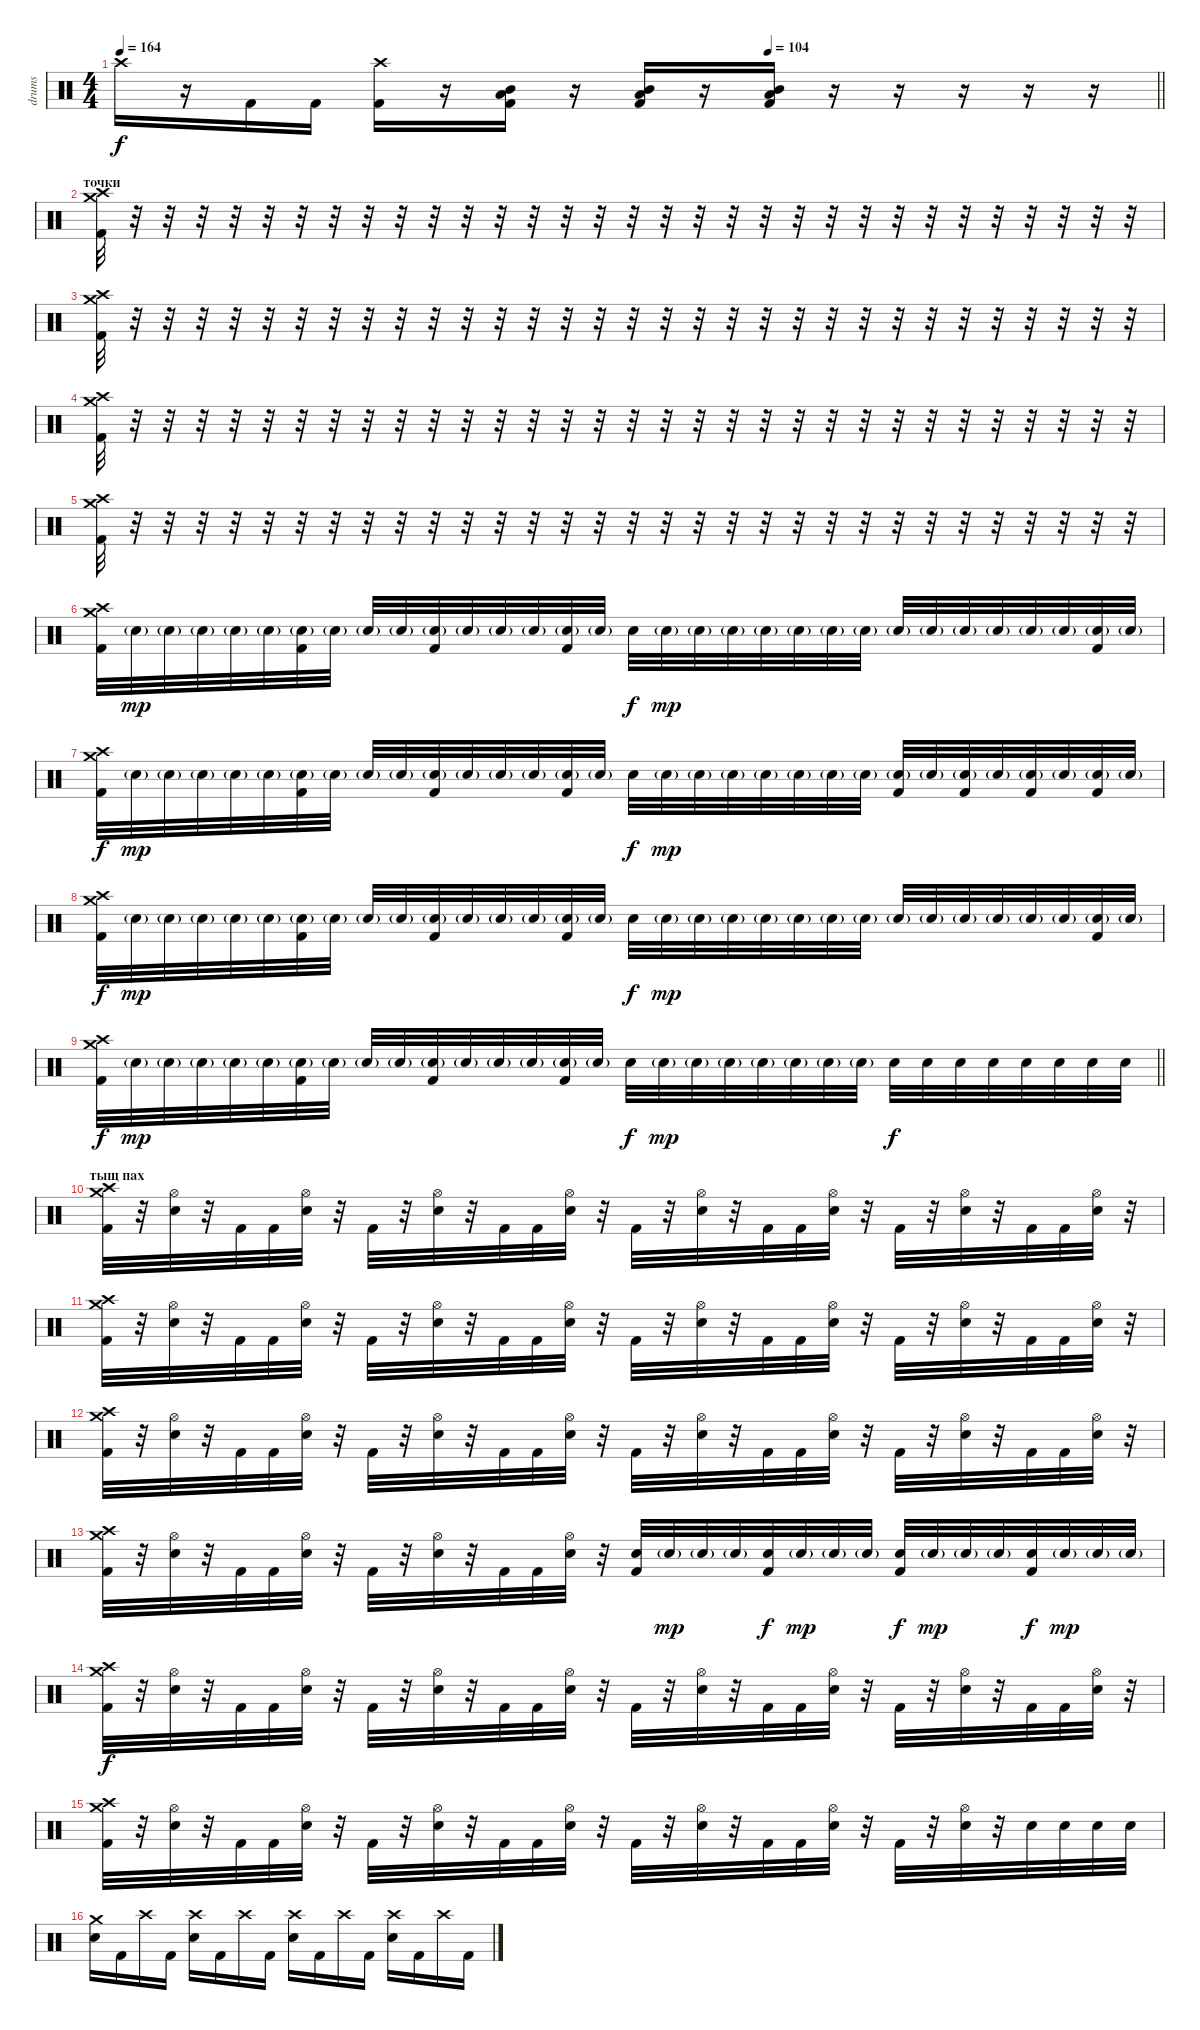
\track ("drums" "drums") {instrument percussion}
\staff {score}
\articulation defaults
\ts (4 4)
\tempo 164
\tempo (104 0.625)
\clef neutral
\barLineRight lightlight
\ks c "Crash high (hit)".16{dy f}
r.16 "Kick (hit) 2".16 "Kick (hit) 2".16 ("Crash high (hit)" "Kick (hit) 2").16 r.16 ("Low Floor Tom (hit)" "Mid Tom (hit)" "Kick (hit) 2").16 r.16 ("Low Floor Tom (hit)" "Mid Tom (hit)" "Kick (hit) 2").16 r.16 ("Low Floor Tom (hit)" "Mid Tom (hit)" "Kick (hit) 2").16 r.16 r.16 r.16 r.16 r.16 |
\section ("" "точки")
("Crash medium (hit)" "Crash high (hit)" "Kick (hit) 2").32 r.32 r.32 r.32 r.32 r.32 r.32 r.32 r.32 r.32 r.32 r.32 r.32 r.32 r.32 r.32 r.32 r.32 r.32 r.32 r.32 r.32 r.32 r.32 r.32 r.32 r.32 r.32 r.32 r.32 r.32 r.32 |
("Crash medium (hit)" "Crash high (hit)" "Kick (hit) 2").32 r.32 r.32 r.32 r.32 r.32 r.32 r.32 r.32 r.32 r.32 r.32 r.32 r.32 r.32 r.32 r.32 r.32 r.32 r.32 r.32 r.32 r.32 r.32 r.32 r.32 r.32 r.32 r.32 r.32 r.32 r.32 |
("Crash medium (hit)" "Crash high (hit)" "Kick (hit) 2").32 r.32 r.32 r.32 r.32 r.32 r.32 r.32 r.32 r.32 r.32 r.32 r.32 r.32 r.32 r.32 r.32 r.32 r.32 r.32 r.32 r.32 r.32 r.32 r.32 r.32 r.32 r.32 r.32 r.32 r.32 r.32 |
("Crash medium (hit)" "Crash high (hit)" "Kick (hit) 2").32 r.32 r.32 r.32 r.32 r.32 r.32 r.32 r.32 r.32 r.32 r.32 r.32 r.32 r.32 r.32 r.32 r.32 r.32 r.32 r.32 r.32 r.32 r.32 r.32 r.32 r.32 r.32 r.32 r.32 r.32 r.32 |
("Crash medium (hit)" "Crash high (hit)" "Kick (hit) 2").32 "Electric Snare (hit)"{g}.32{dy mp} "Electric Snare (hit)"{g}.32 "Electric Snare (hit)"{g}.32 "Electric Snare (hit)"{g}.32 "Electric Snare (hit)"{g}.32 ("Electric Snare (hit)"{g} "Kick (hit) 2").32 "Electric Snare (hit)"{g}.32 "Electric Snare (hit)"{g}.32 "Electric Snare (hit)"{g}.32 ("Electric Snare (hit)"{g} "Kick (hit) 2").32 "Electric Snare (hit)"{g}.32 "Electric Snare (hit)"{g}.32 "Electric Snare (hit)"{g}.32 ("Electric Snare (hit)"{g} "Kick (hit) 2").32 "Electric Snare (hit)"{g}.32 "Electric Snare (hit)".32{dy f} "Electric Snare (hit)"{g}.32{dy mp} "Electric Snare (hit)"{g}.32 "Electric Snare (hit)"{g}.32 "Electric Snare (hit)"{g}.32 "Electric Snare (hit)"{g}.32 "Electric Snare (hit)"{g}.32 "Electric Snare (hit)"{g}.32 "Electric Snare (hit)"{g}.32 "Electric Snare (hit)"{g}.32 "Electric Snare (hit)"{g}.32 "Electric Snare (hit)"{g}.32 "Electric Snare (hit)"{g}.32 "Electric Snare (hit)"{g}.32 ("Electric Snare (hit)"{g} "Kick (hit) 2").32 "Electric Snare (hit)"{g}.32 |
("Crash medium (hit)" "Crash high (hit)" "Kick (hit) 2").32{dy f} "Electric Snare (hit)"{g}.32{dy mp} "Electric Snare (hit)"{g}.32 "Electric Snare (hit)"{g}.32 "Electric Snare (hit)"{g}.32 "Electric Snare (hit)"{g}.32 ("Electric Snare (hit)"{g} "Kick (hit) 2").32 "Electric Snare (hit)"{g}.32 "Electric Snare (hit)"{g}.32 "Electric Snare (hit)"{g}.32 ("Electric Snare (hit)"{g} "Kick (hit) 2").32 "Electric Snare (hit)"{g}.32 "Electric Snare (hit)"{g}.32 "Electric Snare (hit)"{g}.32 ("Electric Snare (hit)"{g} "Kick (hit) 2").32 "Electric Snare (hit)"{g}.32 "Electric Snare (hit)".32{dy f} "Electric Snare (hit)"{g}.32{dy mp} "Electric Snare (hit)"{g}.32 "Electric Snare (hit)"{g}.32 "Electric Snare (hit)"{g}.32 "Electric Snare (hit)"{g}.32 "Electric Snare (hit)"{g}.32 "Electric Snare (hit)"{g}.32 ("Electric Snare (hit)"{g} "Kick (hit) 2").32 "Electric Snare (hit)"{g}.32 ("Electric Snare (hit)"{g} "Kick (hit) 2").32 "Electric Snare (hit)"{g}.32 ("Electric Snare (hit)"{g} "Kick (hit) 2").32 "Electric Snare (hit)"{g}.32 ("Electric Snare (hit)"{g} "Kick (hit) 2").32 "Electric Snare (hit)"{g}.32 |
("Crash medium (hit)" "Crash high (hit)" "Kick (hit) 2").32{dy f} "Electric Snare (hit)"{g}.32{dy mp} "Electric Snare (hit)"{g}.32 "Electric Snare (hit)"{g}.32 "Electric Snare (hit)"{g}.32 "Electric Snare (hit)"{g}.32 ("Electric Snare (hit)"{g} "Kick (hit) 2").32 "Electric Snare (hit)"{g}.32 "Electric Snare (hit)"{g}.32 "Electric Snare (hit)"{g}.32 ("Electric Snare (hit)"{g} "Kick (hit) 2").32 "Electric Snare (hit)"{g}.32 "Electric Snare (hit)"{g}.32 "Electric Snare (hit)"{g}.32 ("Electric Snare (hit)"{g} "Kick (hit) 2").32 "Electric Snare (hit)"{g}.32 "Electric Snare (hit)".32{dy f} "Electric Snare (hit)"{g}.32{dy mp} "Electric Snare (hit)"{g}.32 "Electric Snare (hit)"{g}.32 "Electric Snare (hit)"{g}.32 "Electric Snare (hit)"{g}.32 "Electric Snare (hit)"{g}.32 "Electric Snare (hit)"{g}.32 "Electric Snare (hit)"{g}.32 "Electric Snare (hit)"{g}.32 "Electric Snare (hit)"{g}.32 "Electric Snare (hit)"{g}.32 "Electric Snare (hit)"{g}.32 "Electric Snare (hit)"{g}.32 ("Electric Snare (hit)"{g} "Kick (hit) 2").32 "Electric Snare (hit)"{g}.32 |
\barLineRight lightlight
("Crash medium (hit)" "Crash high (hit)" "Kick (hit) 2").32{dy f} "Electric Snare (hit)"{g}.32{dy mp} "Electric Snare (hit)"{g}.32 "Electric Snare (hit)"{g}.32 "Electric Snare (hit)"{g}.32 "Electric Snare (hit)"{g}.32 ("Electric Snare (hit)"{g} "Kick (hit) 2").32 "Electric Snare (hit)"{g}.32 "Electric Snare (hit)"{g}.32 "Electric Snare (hit)"{g}.32 ("Electric Snare (hit)"{g} "Kick (hit) 2").32 "Electric Snare (hit)"{g}.32 "Electric Snare (hit)"{g}.32 "Electric Snare (hit)"{g}.32 ("Electric Snare (hit)"{g} "Kick (hit) 2").32 "Electric Snare (hit)"{g}.32 "Electric Snare (hit)".32{dy f} "Electric Snare (hit)"{g}.32{dy mp} "Electric Snare (hit)"{g}.32 "Electric Snare (hit)"{g}.32 "Electric Snare (hit)"{g}.32 "Electric Snare (hit)"{g}.32 "Electric Snare (hit)"{g}.32 "Electric Snare (hit)"{g}.32 "Electric Snare (hit)".32{dy f} "Electric Snare (hit)".32 "Electric Snare (hit)".32 "Electric Snare (hit)".32 "Electric Snare (hit)".32 "Electric Snare (hit)".32 "Electric Snare (hit)".32 "Electric Snare (hit)".32 |
\section ("" "тыщ пах")
("Crash medium (hit)" "Crash high (hit)" "Kick (hit) 2").32 r.32 ("Hi-Hat (open)" "Electric Snare (hit)").32 r.32 "Kick (hit) 2".32 "Kick (hit) 2".32 ("Hi-Hat (open)" "Electric Snare (hit)").32 r.32 "Kick (hit) 2".32 r.32 ("Hi-Hat (open)" "Electric Snare (hit)").32 r.32 "Kick (hit) 2".32 "Kick (hit) 2".32 ("Hi-Hat (open)" "Electric Snare (hit)").32 r.32 "Kick (hit) 2".32 r.32 ("Hi-Hat (open)" "Electric Snare (hit)").32 r.32 "Kick (hit) 2".32 "Kick (hit) 2".32 ("Hi-Hat (open)" "Electric Snare (hit)").32 r.32 "Kick (hit) 2".32 r.32 ("Hi-Hat (open)" "Electric Snare (hit)").32 r.32 "Kick (hit) 2".32 "Kick (hit) 2".32 ("Hi-Hat (open)" "Electric Snare (hit)").32 r.32 |
("Crash medium (hit)" "Crash high (hit)" "Kick (hit) 2").32 r.32 ("Hi-Hat (open)" "Electric Snare (hit)").32 r.32 "Kick (hit) 2".32 "Kick (hit) 2".32 ("Hi-Hat (open)" "Electric Snare (hit)").32 r.32 "Kick (hit) 2".32 r.32 ("Hi-Hat (open)" "Electric Snare (hit)").32 r.32 "Kick (hit) 2".32 "Kick (hit) 2".32 ("Hi-Hat (open)" "Electric Snare (hit)").32 r.32 "Kick (hit) 2".32 r.32 ("Hi-Hat (open)" "Electric Snare (hit)").32 r.32 "Kick (hit) 2".32 "Kick (hit) 2".32 ("Hi-Hat (open)" "Electric Snare (hit)").32 r.32 "Kick (hit) 2".32 r.32 ("Hi-Hat (open)" "Electric Snare (hit)").32 r.32 "Kick (hit) 2".32 "Kick (hit) 2".32 ("Hi-Hat (open)" "Electric Snare (hit)").32 r.32 |
("Crash medium (hit)" "Crash high (hit)" "Kick (hit) 2").32 r.32 ("Hi-Hat (open)" "Electric Snare (hit)").32 r.32 "Kick (hit) 2".32 "Kick (hit) 2".32 ("Hi-Hat (open)" "Electric Snare (hit)").32 r.32 "Kick (hit) 2".32 r.32 ("Hi-Hat (open)" "Electric Snare (hit)").32 r.32 "Kick (hit) 2".32 "Kick (hit) 2".32 ("Hi-Hat (open)" "Electric Snare (hit)").32 r.32 "Kick (hit) 2".32 r.32 ("Hi-Hat (open)" "Electric Snare (hit)").32 r.32 "Kick (hit) 2".32 "Kick (hit) 2".32 ("Hi-Hat (open)" "Electric Snare (hit)").32 r.32 "Kick (hit) 2".32 r.32 ("Hi-Hat (open)" "Electric Snare (hit)").32 r.32 "Kick (hit) 2".32 "Kick (hit) 2".32 ("Hi-Hat (open)" "Electric Snare (hit)").32 r.32 |
("Crash medium (hit)" "Crash high (hit)" "Kick (hit) 2").32 r.32 ("Hi-Hat (open)" "Electric Snare (hit)").32 r.32 "Kick (hit) 2".32 "Kick (hit) 2".32 ("Hi-Hat (open)" "Electric Snare (hit)").32 r.32 "Kick (hit) 2".32 r.32 ("Hi-Hat (open)" "Electric Snare (hit)").32 r.32 "Kick (hit) 2".32 "Kick (hit) 2".32 ("Hi-Hat (open)" "Electric Snare (hit)").32 r.32 ("Electric Snare (hit)" "Kick (hit) 2").32 "Electric Snare (hit)"{g}.32{dy mp} "Electric Snare (hit)"{g}.32 "Electric Snare (hit)"{g}.32 ("Electric Snare (hit)" "Kick (hit) 2").32{dy f} "Electric Snare (hit)"{g}.32{dy mp} "Electric Snare (hit)"{g}.32 "Electric Snare (hit)"{g}.32 ("Electric Snare (hit)" "Kick (hit) 2").32{dy f} "Electric Snare (hit)"{g}.32{dy mp} "Electric Snare (hit)"{g}.32 "Electric Snare (hit)"{g}.32 ("Electric Snare (hit)" "Kick (hit) 2").32{dy f} "Electric Snare (hit)"{g}.32{dy mp} "Electric Snare (hit)"{g}.32 "Electric Snare (hit)"{g}.32 |
("Crash medium (hit)" "Crash high (hit)" "Kick (hit) 2").32{dy f} r.32 ("Hi-Hat (open)" "Electric Snare (hit)").32 r.32 "Kick (hit) 2".32 "Kick (hit) 2".32 ("Hi-Hat (open)" "Electric Snare (hit)").32 r.32 "Kick (hit) 2".32 r.32 ("Hi-Hat (open)" "Electric Snare (hit)").32 r.32 "Kick (hit) 2".32 "Kick (hit) 2".32 ("Hi-Hat (open)" "Electric Snare (hit)").32 r.32 "Kick (hit) 2".32 r.32 ("Hi-Hat (open)" "Electric Snare (hit)").32 r.32 "Kick (hit) 2".32 "Kick (hit) 2".32 ("Hi-Hat (open)" "Electric Snare (hit)").32 r.32 "Kick (hit) 2".32 r.32 ("Hi-Hat (open)" "Electric Snare (hit)").32 r.32 "Kick (hit) 2".32 "Kick (hit) 2".32 ("Hi-Hat (open)" "Electric Snare (hit)").32 r.32 |
("Crash medium (hit)" "Crash high (hit)" "Kick (hit) 2").32 r.32 ("Hi-Hat (open)" "Electric Snare (hit)").32 r.32 "Kick (hit) 2".32 "Kick (hit) 2".32 ("Hi-Hat (open)" "Electric Snare (hit)").32 r.32 "Kick (hit) 2".32 r.32 ("Hi-Hat (open)" "Electric Snare (hit)").32 r.32 "Kick (hit) 2".32 "Kick (hit) 2".32 ("Hi-Hat (open)" "Electric Snare (hit)").32 r.32 "Kick (hit) 2".32 r.32 ("Hi-Hat (open)" "Electric Snare (hit)").32 r.32 "Kick (hit) 2".32 "Kick (hit) 2".32 ("Hi-Hat (open)" "Electric Snare (hit)").32 r.32 "Kick (hit) 2".32 r.32 ("Hi-Hat (open)" "Electric Snare (hit)").32 r.32 "Electric Snare (hit)".32 "Electric Snare (hit)".32 "Electric Snare (hit)".32 "Electric Snare (hit)".32 |
("Crash medium (hit)" "Electric Snare (hit)").16 "Kick (hit) 2".16 "Crash high (hit)".16 "Kick (hit) 2".16 ("Crash high (hit)" "Electric Snare (hit)").16 "Kick (hit) 2".16 "Crash high (hit)".16 "Kick (hit) 2".16 ("Crash high (hit)" "Electric Snare (hit)").16 "Kick (hit) 2".16 "Crash high (hit)".16 "Kick (hit) 2".16 ("Crash high (hit)" "Electric Snare (hit)").16 "Kick (hit) 2".16 "Crash high (hit)".16 "Kick (hit) 2".16
